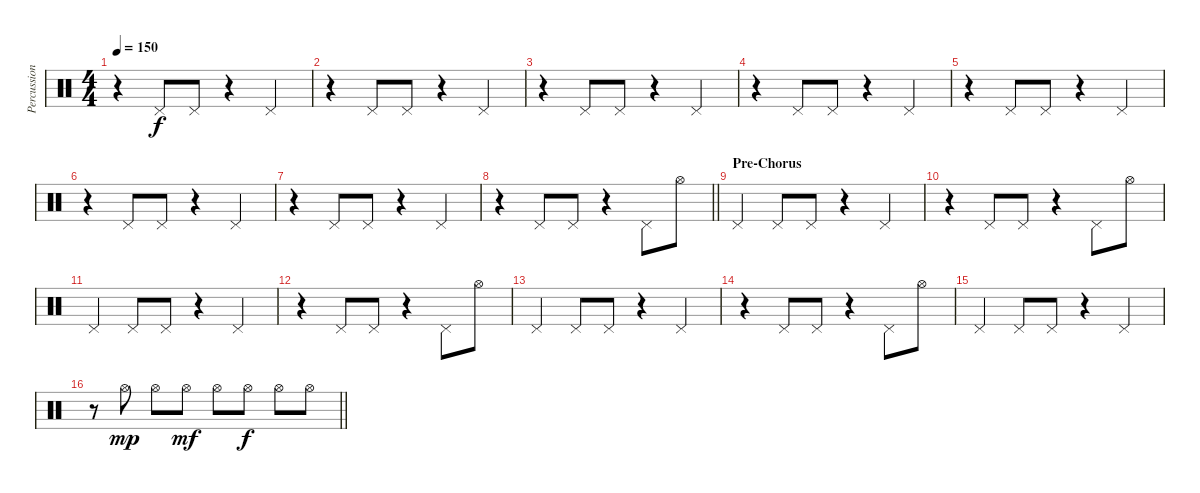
\track ("Percussion" "Percussion") {instrument percussion}
\staff {score}
\articulation defaults
\ts (4 4)
\tempo 150
\clef neutral
\ks c
r.4{dy f} "Pedal Hi-Hat (hit)".8 "Pedal Hi-Hat (hit)".8 r.4 "Pedal Hi-Hat (hit)".4 |
r.4 "Pedal Hi-Hat (hit)".8 "Pedal Hi-Hat (hit)".8 r.4 "Pedal Hi-Hat (hit)".4 |
r.4 "Pedal Hi-Hat (hit)".8 "Pedal Hi-Hat (hit)".8 r.4 "Pedal Hi-Hat (hit)".4 |
r.4 "Pedal Hi-Hat (hit)".8 "Pedal Hi-Hat (hit)".8 r.4 "Pedal Hi-Hat (hit)".4 |
r.4 "Pedal Hi-Hat (hit)".8 "Pedal Hi-Hat (hit)".8 r.4 "Pedal Hi-Hat (hit)".4 |
r.4 "Pedal Hi-Hat (hit)".8 "Pedal Hi-Hat (hit)".8 r.4 "Pedal Hi-Hat (hit)".4 |
r.4 "Pedal Hi-Hat (hit)".8 "Pedal Hi-Hat (hit)".8 r.4 "Pedal Hi-Hat (hit)".4 |
\barLineRight lightlight
r.4 "Pedal Hi-Hat (hit)".8 "Pedal Hi-Hat (hit)".8 r.4 "Pedal Hi-Hat (hit)".8 "Hi-Hat (open)".8 |
\section ("" "Pre-Chorus")
"Pedal Hi-Hat (hit)".4 "Pedal Hi-Hat (hit)".8 "Pedal Hi-Hat (hit)".8 r.4 "Pedal Hi-Hat (hit)".4 |
r.4 "Pedal Hi-Hat (hit)".8 "Pedal Hi-Hat (hit)".8 r.4 "Pedal Hi-Hat (hit)".8 "Hi-Hat (open)".8 |
"Pedal Hi-Hat (hit)".4 "Pedal Hi-Hat (hit)".8 "Pedal Hi-Hat (hit)".8 r.4 "Pedal Hi-Hat (hit)".4 |
r.4 "Pedal Hi-Hat (hit)".8 "Pedal Hi-Hat (hit)".8 r.4 "Pedal Hi-Hat (hit)".8 "Hi-Hat (open)".8 |
"Pedal Hi-Hat (hit)".4 "Pedal Hi-Hat (hit)".8 "Pedal Hi-Hat (hit)".8 r.4 "Pedal Hi-Hat (hit)".4 |
r.4 "Pedal Hi-Hat (hit)".8 "Pedal Hi-Hat (hit)".8 r.4 "Pedal Hi-Hat (hit)".8 "Hi-Hat (open)".8 |
"Pedal Hi-Hat (hit)".4 "Pedal Hi-Hat (hit)".8 "Pedal Hi-Hat (hit)".8 r.4 "Pedal Hi-Hat (hit)".4 |
\barLineRight lightlight
r.8 "Hi-Hat (open)".8{dy mp} "Hi-Hat (open)".8 "Hi-Hat (open)".8{dy mf} "Hi-Hat (open)".8 "Hi-Hat (open)".8{dy f} "Hi-Hat (open)".8 "Hi-Hat (open)".8
